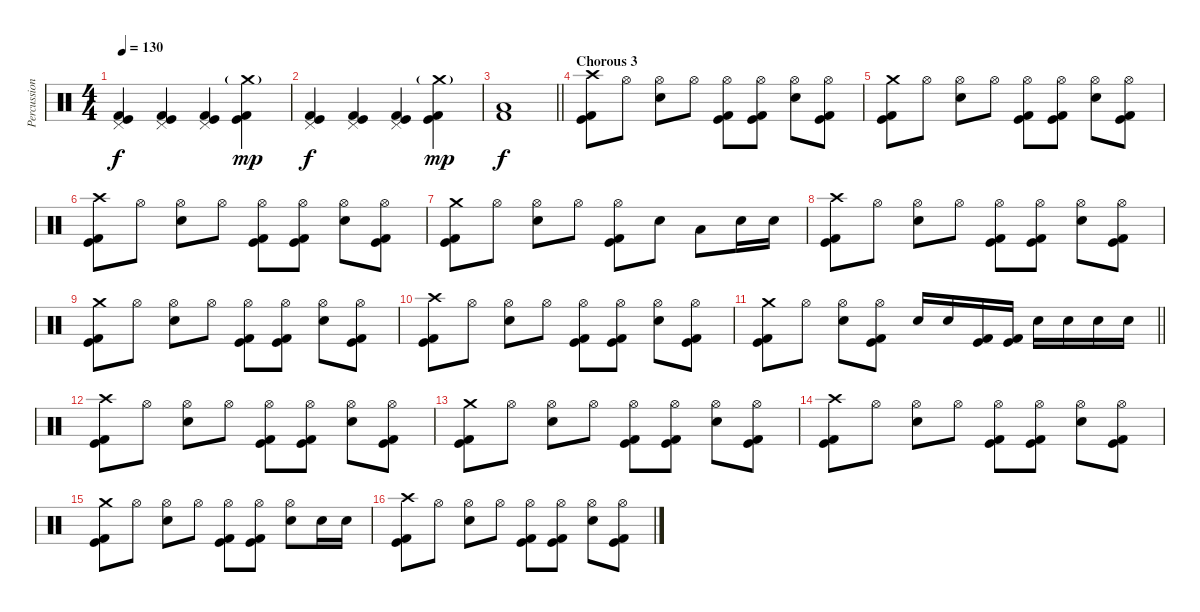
\track ("Percussion" "Percussion") {instrument percussion}
\staff {score}
\articulation defaults
\ts (4 4)
\tempo 130
\clef neutral
\ks c
("Pedal Hi-Hat (hit)" "Kick (hit)" "Kick (hit) 2").4{dy f} ("Pedal Hi-Hat (hit)" "Kick (hit)" "Kick (hit) 2").4 ("Pedal Hi-Hat (hit)" "Kick (hit)" "Kick (hit) 2").4 ("Crash medium (hit)"{g} "Kick (hit)" "Kick (hit) 2").4{dy mp} |
("Pedal Hi-Hat (hit)" "Kick (hit)" "Kick (hit) 2").4{dy f} ("Pedal Hi-Hat (hit)" "Kick (hit)" "Kick (hit) 2").4 ("Pedal Hi-Hat (hit)" "Kick (hit)" "Kick (hit) 2").4 ("Crash medium (hit)"{g} "Kick (hit)" "Kick (hit) 2").4{dy mp} |
\barLineRight lightlight
("Kick (hit) 2" "Low Tom (hit)").1{dy f} |
\section ("" "Chorous 3")
("Crash high (hit)" "Kick (hit)" "Kick (hit) 2").8 "Hi-Hat (open)".8 ("Hi-Hat (open)" "Electric Snare (hit)").8 "Hi-Hat (open)".8 ("Hi-Hat (open)" "Kick (hit)" "Kick (hit) 2").8 ("Hi-Hat (open)" "Kick (hit)" "Kick (hit) 2").8 ("Hi-Hat (open)" "Electric Snare (hit)").8 ("Hi-Hat (open)" "Kick (hit)" "Kick (hit) 2").8 |
("Crash medium (hit)" "Kick (hit)" "Kick (hit) 2").8 "Hi-Hat (open)".8 ("Hi-Hat (open)" "Electric Snare (hit)").8 "Hi-Hat (open)".8 ("Hi-Hat (open)" "Kick (hit)" "Kick (hit) 2").8 ("Hi-Hat (open)" "Kick (hit)" "Kick (hit) 2").8 ("Hi-Hat (open)" "Electric Snare (hit)").8 ("Hi-Hat (open)" "Kick (hit)" "Kick (hit) 2").8 |
("Crash high (hit)" "Kick (hit)" "Kick (hit) 2").8 "Hi-Hat (open)".8 ("Hi-Hat (open)" "Electric Snare (hit)").8 "Hi-Hat (open)".8 ("Hi-Hat (open)" "Kick (hit)" "Kick (hit) 2").8 ("Hi-Hat (open)" "Kick (hit)" "Kick (hit) 2").8 ("Hi-Hat (open)" "Electric Snare (hit)").8 ("Hi-Hat (open)" "Kick (hit)" "Kick (hit) 2").8 |
("Crash medium (hit)" "Kick (hit)" "Kick (hit) 2").8 "Hi-Hat (open)".8 ("Hi-Hat (open)" "Electric Snare (hit)").8 "Hi-Hat (open)".8 ("Hi-Hat (open)" "Kick (hit)" "Kick (hit) 2").8 "Electric Snare (hit)".8 "Low Tom (hit)".8 "Electric Snare (hit)".16 "Electric Snare (hit)".16 |
("Crash high (hit)" "Kick (hit)" "Kick (hit) 2").8 "Hi-Hat (open)".8 ("Hi-Hat (open)" "Electric Snare (hit)").8 "Hi-Hat (open)".8 ("Hi-Hat (open)" "Kick (hit)" "Kick (hit) 2").8 ("Hi-Hat (open)" "Kick (hit)" "Kick (hit) 2").8 ("Hi-Hat (open)" "Electric Snare (hit)").8 ("Hi-Hat (open)" "Kick (hit)" "Kick (hit) 2").8 |
("Crash medium (hit)" "Kick (hit)" "Kick (hit) 2").8 "Hi-Hat (open)".8 ("Hi-Hat (open)" "Electric Snare (hit)").8 "Hi-Hat (open)".8 ("Hi-Hat (open)" "Kick (hit)" "Kick (hit) 2").8 ("Hi-Hat (open)" "Kick (hit)" "Kick (hit) 2").8 ("Hi-Hat (open)" "Electric Snare (hit)").8 ("Hi-Hat (open)" "Kick (hit)" "Kick (hit) 2").8 |
("Crash high (hit)" "Kick (hit)" "Kick (hit) 2").8 "Hi-Hat (open)".8 ("Hi-Hat (open)" "Electric Snare (hit)").8 "Hi-Hat (open)".8 ("Hi-Hat (open)" "Kick (hit)" "Kick (hit) 2").8 ("Hi-Hat (open)" "Kick (hit)" "Kick (hit) 2").8 ("Hi-Hat (open)" "Electric Snare (hit)").8 ("Hi-Hat (open)" "Kick (hit)" "Kick (hit) 2").8 |
\barLineRight lightlight
("Crash medium (hit)" "Kick (hit)" "Kick (hit) 2").8 "Hi-Hat (open)".8 ("Hi-Hat (open)" "Electric Snare (hit)").8 ("Hi-Hat (open)" "Kick (hit)" "Kick (hit) 2").8 "Electric Snare (hit)".16 "Electric Snare (hit)".16 ("Kick (hit)" "Kick (hit) 2").16 ("Kick (hit)" "Kick (hit) 2").16 "Electric Snare (hit)".16 "Electric Snare (hit)".16 "Electric Snare (hit)".16 "Electric Snare (hit)".16 |
\section ("" "")
("Crash high (hit)" "Kick (hit)" "Kick (hit) 2").8 "Hi-Hat (open)".8 ("Hi-Hat (open)" "Electric Snare (hit)").8 "Hi-Hat (open)".8 ("Hi-Hat (open)" "Kick (hit)" "Kick (hit) 2").8 ("Hi-Hat (open)" "Kick (hit)" "Kick (hit) 2").8 ("Hi-Hat (open)" "Electric Snare (hit)").8 ("Hi-Hat (open)" "Kick (hit)" "Kick (hit) 2").8 |
("Crash medium (hit)" "Kick (hit)" "Kick (hit) 2").8 "Hi-Hat (open)".8 ("Hi-Hat (open)" "Electric Snare (hit)").8 "Hi-Hat (open)".8 ("Hi-Hat (open)" "Kick (hit)" "Kick (hit) 2").8 ("Hi-Hat (open)" "Kick (hit)" "Kick (hit) 2").8 ("Hi-Hat (open)" "Electric Snare (hit)").8 ("Hi-Hat (open)" "Kick (hit)" "Kick (hit) 2").8 |
("Crash high (hit)" "Kick (hit)" "Kick (hit) 2").8 "Hi-Hat (open)".8 ("Hi-Hat (open)" "Electric Snare (hit)").8 "Hi-Hat (open)".8 ("Hi-Hat (open)" "Kick (hit)" "Kick (hit) 2").8 ("Hi-Hat (open)" "Kick (hit)" "Kick (hit) 2").8 ("Hi-Hat (open)" "Electric Snare (hit)").8 ("Hi-Hat (open)" "Kick (hit)" "Kick (hit) 2").8 |
("Crash medium (hit)" "Kick (hit)" "Kick (hit) 2").8 "Hi-Hat (open)".8 ("Hi-Hat (open)" "Electric Snare (hit)").8 "Hi-Hat (open)".8 ("Hi-Hat (open)" "Kick (hit)" "Kick (hit) 2").8 ("Hi-Hat (open)" "Kick (hit)" "Kick (hit) 2").8 ("Hi-Hat (open)" "Electric Snare (hit)").8 "Electric Snare (hit)".16 "Electric Snare (hit)".16 |
("Crash high (hit)" "Kick (hit)" "Kick (hit) 2").8 "Hi-Hat (open)".8 ("Hi-Hat (open)" "Electric Snare (hit)").8 "Hi-Hat (open)".8 ("Hi-Hat (open)" "Kick (hit)" "Kick (hit) 2").8 ("Hi-Hat (open)" "Kick (hit)" "Kick (hit) 2").8 ("Hi-Hat (open)" "Electric Snare (hit)").8 ("Hi-Hat (open)" "Kick (hit)" "Kick (hit) 2").8
